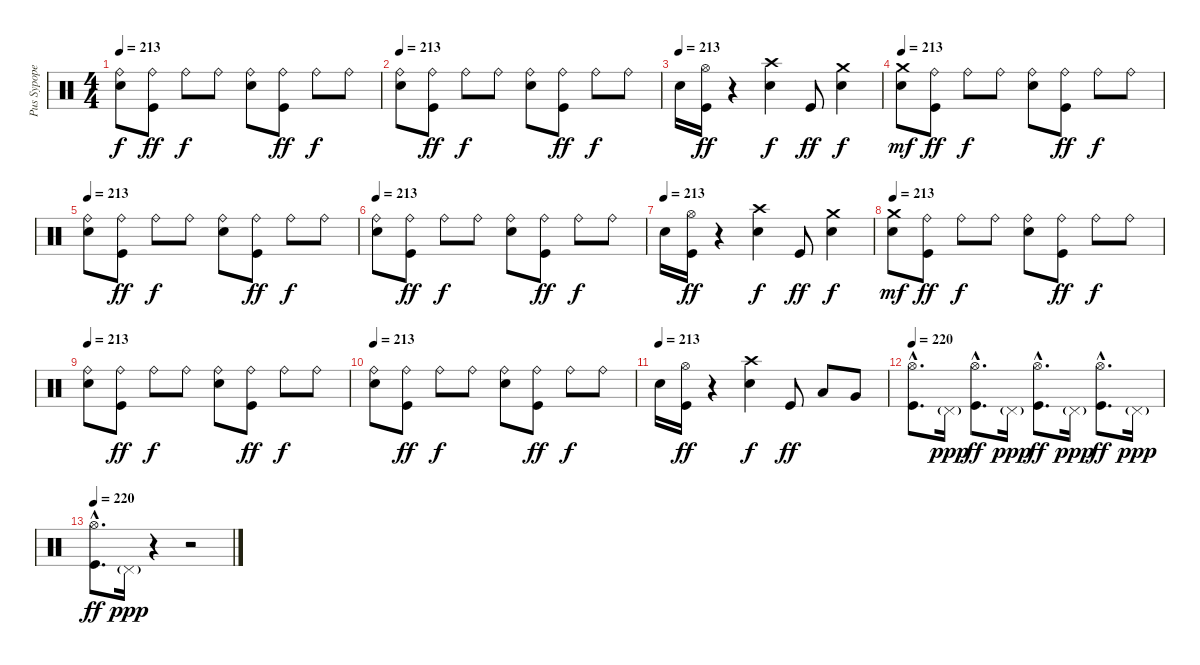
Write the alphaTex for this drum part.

\track ("Pus Sypope" "Pus Sypope") {instrument percussion}
\staff {score}
\articulation defaults
\ts (4 4)
\tempo 213
\clef neutral
\ks c
("Ride (bell)" "Snare (hit) 2").8{dy f} ("Ride (bell)" "Kick (hit)").8{dy ff} "Ride (bell)".8{dy f} "Ride (bell)".8 ("Ride (bell)" "Snare (hit) 2").8 ("Ride (bell)" "Kick (hit)").8{dy ff} "Ride (bell)".8{dy f} "Ride (bell)".8 |
\tempo 213
("Ride (bell)" "Snare (hit) 2").8 ("Ride (bell)" "Kick (hit)").8{dy ff} "Ride (bell)".8{dy f} "Ride (bell)".8 ("Ride (bell)" "Snare (hit) 2").8 ("Ride (bell)" "Kick (hit)").8{dy ff} "Ride (bell)".8{dy f} "Ride (bell)".8 |
\tempo (213)
"Snare (hit) 2".16 ("Hi-Hat (open)" "Kick (hit)").16{dy ff} r.4 ("Crash high (hit)" "Snare (hit) 2").4{dy f} "Kick (hit)".8{dy ff} ("Crash medium (hit)" "Snare (hit) 2").4{dy f} |
\tempo 213
("Crash medium (hit)" "Snare (hit) 2").8{dy mf} ("Ride (bell)" "Kick (hit)").8{dy ff} "Ride (bell)".8{dy f} "Ride (bell)".8 ("Ride (bell)" "Snare (hit) 2").8 ("Ride (bell)" "Kick (hit)").8{dy ff} "Ride (bell)".8{dy f} "Ride (bell)".8 |
\tempo 213
("Ride (bell)" "Snare (hit) 2").8 ("Ride (bell)" "Kick (hit)").8{dy ff} "Ride (bell)".8{dy f} "Ride (bell)".8 ("Ride (bell)" "Snare (hit) 2").8 ("Ride (bell)" "Kick (hit)").8{dy ff} "Ride (bell)".8{dy f} "Ride (bell)".8 |
\tempo 213
("Ride (bell)" "Snare (hit) 2").8 ("Ride (bell)" "Kick (hit)").8{dy ff} "Ride (bell)".8{dy f} "Ride (bell)".8 ("Ride (bell)" "Snare (hit) 2").8 ("Ride (bell)" "Kick (hit)").8{dy ff} "Ride (bell)".8{dy f} "Ride (bell)".8 |
\tempo (213)
"Snare (hit) 2".16 ("Hi-Hat (open)" "Kick (hit)").16{dy ff} r.4 ("Crash high (hit)" "Snare (hit) 2").4{dy f} "Kick (hit)".8{dy ff} ("Crash medium (hit)" "Snare (hit) 2").4{dy f} |
\tempo 213
("Crash medium (hit)" "Snare (hit) 2").8{dy mf} ("Ride (bell)" "Kick (hit)").8{dy ff} "Ride (bell)".8{dy f} "Ride (bell)".8 ("Ride (bell)" "Snare (hit) 2").8 ("Ride (bell)" "Kick (hit)").8{dy ff} "Ride (bell)".8{dy f} "Ride (bell)".8 |
\tempo 213
("Ride (bell)" "Snare (hit) 2").8 ("Ride (bell)" "Kick (hit)").8{dy ff} "Ride (bell)".8{dy f} "Ride (bell)".8 ("Ride (bell)" "Snare (hit) 2").8 ("Ride (bell)" "Kick (hit)").8{dy ff} "Ride (bell)".8{dy f} "Ride (bell)".8 |
\tempo 213
("Ride (bell)" "Snare (hit) 2").8 ("Ride (bell)" "Kick (hit)").8{dy ff} "Ride (bell)".8{dy f} "Ride (bell)".8 ("Ride (bell)" "Snare (hit) 2").8 ("Ride (bell)" "Kick (hit)").8{dy ff} "Ride (bell)".8{dy f} "Ride (bell)".8 |
\tempo (213)
"Snare (hit) 2".16 ("Hi-Hat (open)" "Kick (hit)").16{dy ff} r.4 ("Crash high (hit)" "Snare (hit) 2").4{dy f} "Kick (hit)".8{dy ff} "Low Tom (hit)".8 "Very Low Tom (hit)".8 |
\tempo 220
("Hi-Hat (open)"{hac} "Kick (hit)"{hac}).8{d} "Pedal Hi-Hat (hit)"{g}.16{dy ppp} ("Hi-Hat (open)"{hac} "Kick (hit)"{hac}).8{d dy ff} "Pedal Hi-Hat (hit)"{g}.16{dy ppp} ("Hi-Hat (open)"{hac} "Kick (hit)"{hac}).8{d dy ff} "Pedal Hi-Hat (hit)"{g}.16{dy ppp} ("Hi-Hat (open)"{hac} "Kick (hit)"{hac}).8{d dy ff} "Pedal Hi-Hat (hit)"{g}.16{dy ppp} |
\tempo 220
("Hi-Hat (open)"{hac} "Kick (hit)"{hac}).8{d dy ff} "Pedal Hi-Hat (hit)"{g}.16{dy ppp} r.4 r.2
